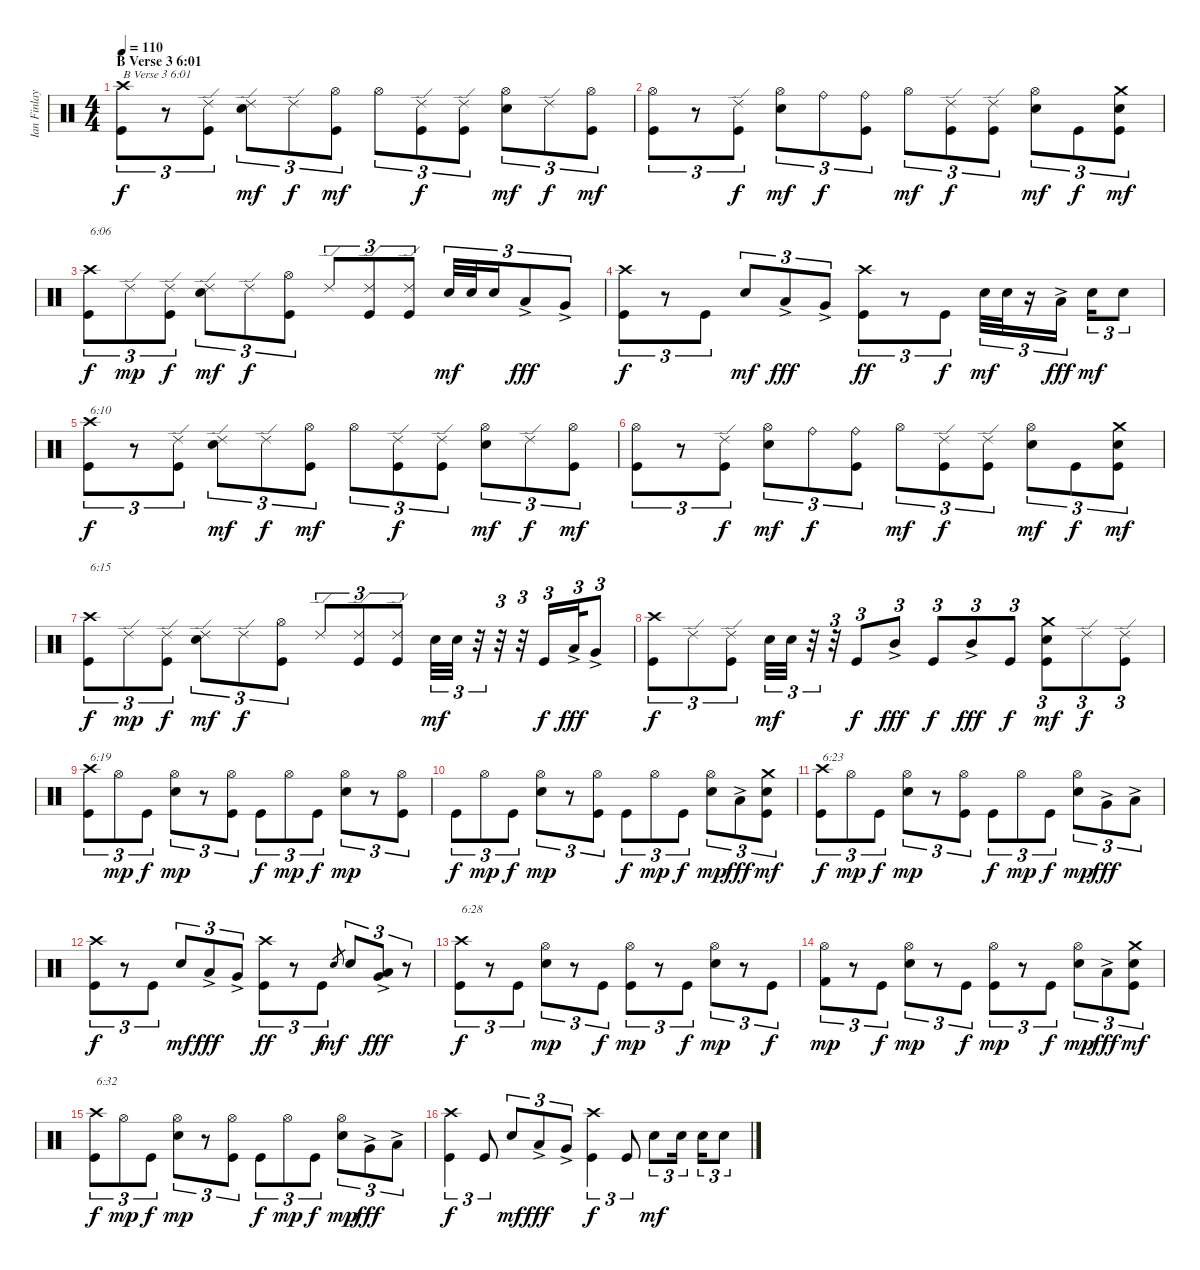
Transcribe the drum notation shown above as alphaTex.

\track ("Ian Finlay" "Ian Finlay") {instrument percussion}
\staff {score}
\articulation defaults
\ts (4 4)
\section ("" "B Verse 3 6:01")
\tempo 110
\clef neutral
\ks c
("Kick (hit)" "Crash high (hit)").8{tu (3 2) txt "B Verse 3 6:01" dy f} r.8{tu (3 2)} ("Kick (hit)" "Ride (edge) 2").8{tu (3 2)} ("Snare (hit) 2" "Ride (edge) 2").8{tu (3 2) dy mf} "Ride (edge) 2".8{tu (3 2) dy f} ("Kick (hit)" "Hi-Hat (open)").8{tu (3 2) dy mf} "Hi-Hat (open)".8{tu (3 2)} ("Kick (hit)" "Ride (edge) 2").8{tu (3 2) dy f} ("Kick (hit)" "Ride (edge) 2").8{tu (3 2)} ("Snare (hit) 2" "Hi-Hat (open)").8{tu (3 2) dy mf} "Ride (edge) 2".8{tu (3 2) dy f} ("Kick (hit)" "Hi-Hat (open)").8{tu (3 2) dy mf} |
("Kick (hit)" "Hi-Hat (open)").8{tu (3 2)} r.8{tu (3 2)} ("Kick (hit)" "Ride (edge) 2").8{tu (3 2) dy f} ("Snare (hit) 2" "Hi-Hat (open)").8{tu (3 2) dy mf} "Ride (bell)".8{tu (3 2) dy f} ("Kick (hit)" "Ride (bell)").8{tu (3 2)} "Hi-Hat (open)".8{tu (3 2) dy mf} ("Kick (hit)" "Ride (edge) 2").8{tu (3 2) dy f} ("Kick (hit)" "Ride (edge) 2").8{tu (3 2)} ("Snare (hit) 2" "Hi-Hat (open)").8{tu (3 2) dy mf} "Kick (hit)".8{tu (3 2) dy f} ("Kick (hit)" "Snare (hit) 2" "Crash medium (hit)").8{tu (3 2) dy mf} |
("Kick (hit)" "Crash high (hit)").8{tu (3 2) txt "6:06" dy f} "Ride (edge) 2".8{tu (3 2) dy mp} ("Kick (hit)" "Ride (edge) 2").8{tu (3 2) dy f} ("Snare (hit) 2" "Ride (edge) 2").8{tu (3 2) dy mf} "Ride (edge) 2".8{tu (3 2) dy f} ("Kick (hit)" "Hi-Hat (open)").8{tu (3 2)} "Ride (edge) 2".8{tu (3 2)} ("Kick (hit)" "Ride (edge) 2").8{tu (3 2)} ("Kick (hit)" "Ride (edge) 2").8{tu (3 2)} "Snare (hit) 2".32{tu (3 2) dy mf} "Snare (hit) 2".32{tu (3 2)} "Snare (hit) 2".16{tu (3 2)} "Low Tom (hit)"{ac}.8{tu (3 2) dy fff} "Very Low Tom (hit)"{ac}.8{tu (3 2)} |
("Kick (hit)" "Crash high (hit)").8{tu (3 2) dy f} r.8{tu (3 2)} "Kick (hit)".8{tu (3 2)} "Snare (hit) 2".8{tu (3 2) dy mf} "Low Tom (hit)"{ac}.8{tu (3 2) dy fff} "Very Low Tom (hit)"{ac}.8{tu (3 2)} ("Kick (hit)" "Crash high (hit)").8{tu (3 2) dy ff} r.8{tu (3 2)} "Kick (hit)".8{tu (3 2) dy f} "Snare (hit) 2".32{tu (3 2) dy mf} "Snare (hit) 2".32{tu (3 2)} r.16{tu (3 2)} "Low Tom (hit)"{ac}.16{tu (3 2) dy fff} "Snare (hit) 2".16{tu (3 2) dy mf} "Snare (hit) 2".8{tu (3 2)} |
("Kick (hit)" "Crash high (hit)").8{tu (3 2) txt "6:10" dy f} r.8{tu (3 2)} ("Kick (hit)" "Ride (edge) 2").8{tu (3 2)} ("Snare (hit) 2" "Ride (edge) 2").8{tu (3 2) dy mf} "Ride (edge) 2".8{tu (3 2) dy f} ("Kick (hit)" "Hi-Hat (open)").8{tu (3 2) dy mf} "Hi-Hat (open)".8{tu (3 2)} ("Kick (hit)" "Ride (edge) 2").8{tu (3 2) dy f} ("Kick (hit)" "Ride (edge) 2").8{tu (3 2)} ("Snare (hit) 2" "Hi-Hat (open)").8{tu (3 2) dy mf} "Ride (edge) 2".8{tu (3 2) dy f} ("Kick (hit)" "Hi-Hat (open)").8{tu (3 2) dy mf} |
("Kick (hit)" "Hi-Hat (open)").8{tu (3 2)} r.8{tu (3 2)} ("Kick (hit)" "Ride (edge) 2").8{tu (3 2) dy f} ("Snare (hit) 2" "Hi-Hat (open)").8{tu (3 2) dy mf} "Ride (bell)".8{tu (3 2) dy f} ("Kick (hit)" "Ride (bell)").8{tu (3 2)} "Hi-Hat (open)".8{tu (3 2) dy mf} ("Kick (hit)" "Ride (edge) 2").8{tu (3 2) dy f} ("Kick (hit)" "Ride (edge) 2").8{tu (3 2)} ("Snare (hit) 2" "Hi-Hat (open)").8{tu (3 2) dy mf} "Kick (hit)".8{tu (3 2) dy f} ("Kick (hit)" "Snare (hit) 2" "Crash medium (hit)").8{tu (3 2) dy mf} |
("Kick (hit)" "Crash high (hit)").8{tu (3 2) txt "6:15" dy f} "Ride (edge) 2".8{tu (3 2) dy mp} ("Kick (hit)" "Ride (edge) 2").8{tu (3 2) dy f} ("Snare (hit) 2" "Ride (edge) 2").8{tu (3 2) dy mf} "Ride (edge) 2".8{tu (3 2) dy f} ("Kick (hit)" "Hi-Hat (open)").8{tu (3 2)} "Ride (edge) 2".8{tu (3 2)} ("Kick (hit)" "Ride (edge) 2").8{tu (3 2)} ("Kick (hit)" "Ride (edge) 2").8{tu (3 2)} "Snare (hit) 2".32{tu (3 2) dy mf} "Snare (hit) 2".32{tu (3 2)} r.32{tu (3 2)} r.32{tu (3 2)} r.32{tu (3 2)} "Kick (hit)".16{tu (3 2) dy f} "Low Tom (hit)"{ac}.32{tu (3 2) dy fff} "Very Low Tom (hit)"{ac}.8{tu (3 2)} |
("Kick (hit)" "Crash high (hit)").8{tu (3 2) dy f} "Ride (edge) 2".8{tu (3 2)} ("Kick (hit)" "Ride (edge) 2").8{tu (3 2)} "Snare (hit) 2".32{tu (3 2) dy mf} "Snare (hit) 2".32{tu (3 2)} r.32{tu (3 2)} r.32{tu (3 2)} "Kick (hit)".8{tu (3 2) dy f} "Mid Tom (hit)"{ac}.8{tu (3 2) dy fff} "Kick (hit)".8{tu (3 2) dy f} "Mid Tom (hit)"{ac}.8{tu (3 2) dy fff} "Kick (hit)".8{tu (3 2) dy f} ("Kick (hit)" "Snare (hit) 2" "Crash medium (hit)").8{tu (3 2) dy mf} "Ride (edge) 2".8{tu (3 2) dy f} ("Kick (hit)" "Ride (edge) 2").8{tu (3 2)} |
("Kick (hit)" "Crash high (hit)").8{tu (3 2) txt "6:19"} "Hi-Hat (open)".8{tu (3 2) dy mp} "Kick (hit)".8{tu (3 2) dy f} ("Snare (hit) 2" "Hi-Hat (open)").8{tu (3 2) dy mp} r.8{tu (3 2)} ("Kick (hit)" "Hi-Hat (open)").8{tu (3 2)} "Kick (hit)".8{tu (3 2) dy f} "Hi-Hat (open)".8{tu (3 2) dy mp} "Kick (hit)".8{tu (3 2) dy f} ("Snare (hit) 2" "Hi-Hat (open)").8{tu (3 2) dy mp} r.8{tu (3 2)} ("Kick (hit)" "Hi-Hat (open)").8{tu (3 2)} |
"Kick (hit)".8{tu (3 2) dy f} "Hi-Hat (open)".8{tu (3 2) dy mp} "Kick (hit)".8{tu (3 2) dy f} ("Snare (hit) 2" "Hi-Hat (open)").8{tu (3 2) dy mp} r.8{tu (3 2)} ("Kick (hit)" "Hi-Hat (open)").8{tu (3 2)} "Kick (hit)".8{tu (3 2) dy f} "Hi-Hat (open)".8{tu (3 2) dy mp} "Kick (hit)".8{tu (3 2) dy f} ("Snare (hit) 2" "Hi-Hat (open)").8{tu (3 2) dy mp} "Low Tom (hit)"{ac}.8{tu (3 2) dy fff} ("Kick (hit)" "Snare (hit) 2" "Crash medium (hit)").8{tu (3 2) dy mf} |
("Kick (hit)" "Crash high (hit)").8{tu (3 2) txt "6:23" dy f} "Hi-Hat (open)".8{tu (3 2) dy mp} "Kick (hit)".8{tu (3 2) dy f} ("Snare (hit) 2" "Hi-Hat (open)").8{tu (3 2) dy mp} r.8{tu (3 2)} ("Kick (hit)" "Hi-Hat (open)").8{tu (3 2)} "Kick (hit)".8{tu (3 2) dy f} "Hi-Hat (open)".8{tu (3 2) dy mp} "Kick (hit)".8{tu (3 2) dy f} ("Snare (hit) 2" "Hi-Hat (open)").8{tu (3 2) dy mp} "Very Low Tom (hit)"{ac}.8{tu (3 2) dy fff} "Low Tom (hit)"{ac}.8{tu (3 2)} |
("Kick (hit)" "Crash high (hit)").8{tu (3 2) dy f} r.8{tu (3 2)} "Kick (hit)".8{tu (3 2)} "Snare (hit) 2".8{tu (3 2) dy mf} "Low Tom (hit)"{ac}.8{tu (3 2) dy fff} "Very Low Tom (hit)"{ac}.8{tu (3 2)} ("Kick (hit)" "Crash high (hit)").8{tu (3 2) dy ff} r.8{tu (3 2)} "Kick (hit)".8{tu (3 2) dy f} "Snare (hit) 2".8{gr dy mf} "Snare (hit) 2".8{tu (3 2)} ("Low Tom (hit)"{ac} "Very Low Tom (hit)"{ac}).8{tu (3 2) dy fff} r.8{tu (3 2)} |
("Kick (hit)" "Crash high (hit)").8{tu (3 2) txt "6:28" dy f} r.8{tu (3 2)} "Kick (hit)".8{tu (3 2)} ("Snare (hit) 2" "Hi-Hat (open)").8{tu (3 2) dy mp} r.8{tu (3 2)} "Kick (hit)".8{tu (3 2) dy f} ("Kick (hit)" "Hi-Hat (open)").8{tu (3 2) dy mp} r.8{tu (3 2)} "Kick (hit)".8{tu (3 2) dy f} ("Snare (hit) 2" "Hi-Hat (open)").8{tu (3 2) dy mp} r.8{tu (3 2)} "Kick (hit)".8{tu (3 2) dy f} |
("Kick (hit) 2" "Hi-Hat (open)").8{tu (3 2) dy mp} r.8{tu (3 2)} "Kick (hit)".8{tu (3 2) dy f} ("Snare (hit) 2" "Hi-Hat (open)").8{tu (3 2) dy mp} r.8{tu (3 2)} "Kick (hit)".8{tu (3 2) dy f} ("Kick (hit)" "Hi-Hat (open)").8{tu (3 2) dy mp} r.8{tu (3 2)} "Kick (hit)".8{tu (3 2) dy f} ("Snare (hit) 2" "Hi-Hat (open)").8{tu (3 2) dy mp} "Low Tom (hit)"{ac}.8{tu (3 2) dy fff} ("Kick (hit)" "Snare (hit) 2" "Crash medium (hit)").8{tu (3 2) dy mf} |
("Kick (hit)" "Crash high (hit)").8{tu (3 2) txt "6:32" dy f} "Hi-Hat (open)".8{tu (3 2) dy mp} "Kick (hit)".8{tu (3 2) dy f} ("Snare (hit) 2" "Hi-Hat (open)").8{tu (3 2) dy mp} r.8{tu (3 2)} ("Kick (hit)" "Hi-Hat (open)").8{tu (3 2)} "Kick (hit)".8{tu (3 2) dy f} "Hi-Hat (open)".8{tu (3 2) dy mp} "Kick (hit)".8{tu (3 2) dy f} ("Snare (hit) 2" "Hi-Hat (open)").8{tu (3 2) dy mp} "Very Low Tom (hit)"{ac}.8{tu (3 2) dy fff} "Low Tom (hit)"{ac}.8{tu (3 2)} |
("Kick (hit)" "Crash high (hit)").4{tu (3 2) dy f} "Kick (hit)".8{tu (3 2)} "Snare (hit) 2".8{tu (3 2) dy mf} "Low Tom (hit)"{ac}.8{tu (3 2) dy fff} "Very Low Tom (hit)"{ac}.8{tu (3 2)} ("Kick (hit)" "Crash high (hit)").4{tu (3 2) dy f} "Kick (hit)".8{tu (3 2)} "Snare (hit) 2".8{tu (3 2) dy mf} "Snare (hit) 2".16{tu (3 2)} "Snare (hit) 2".16{tu (3 2)} "Snare (hit) 2".8{tu (3 2)}
